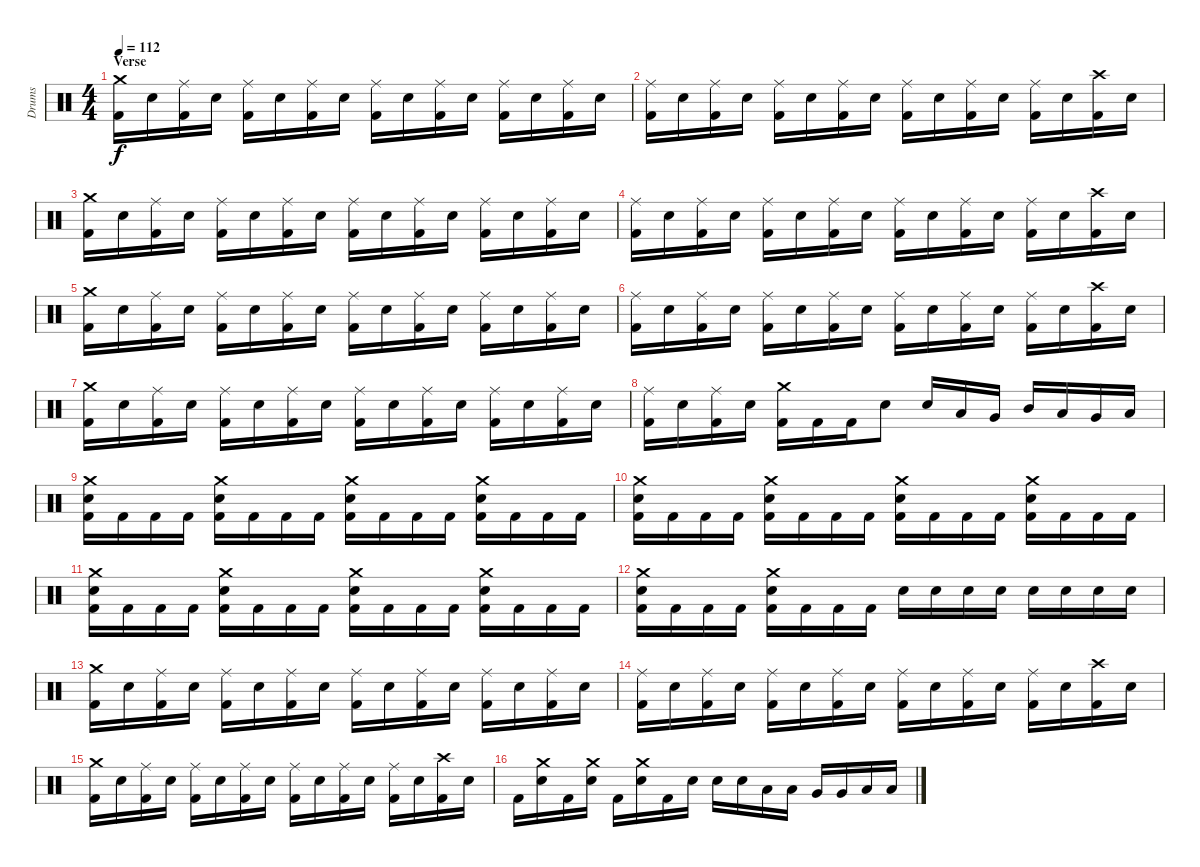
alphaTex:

\track ("Drums" "Drums") {instrument percussion}
\staff {score}
\articulation defaults
\ts (4 4)
\section ("" "Verse")
\tempo 112
\clef neutral
\ks c
("Crash medium (hit)" "Kick (hit) 2").16{dy f} "Electric Snare (hit)".16 ("Ride (middle)" "Kick (hit) 2").16 "Electric Snare (hit)".16 ("Ride (middle)" "Kick (hit) 2").16 "Electric Snare (hit)".16 ("Ride (middle)" "Kick (hit) 2").16 "Electric Snare (hit)".16 ("Ride (middle)" "Kick (hit) 2").16 "Electric Snare (hit)".16 ("Ride (middle)" "Kick (hit) 2").16 "Electric Snare (hit)".16 ("Ride (middle)" "Kick (hit) 2").16 "Electric Snare (hit)".16 ("Ride (middle)" "Kick (hit) 2").16 "Electric Snare (hit)".16 |
("Ride (middle)" "Kick (hit) 2").16 "Electric Snare (hit)".16 ("Ride (middle)" "Kick (hit) 2").16 "Electric Snare (hit)".16 ("Ride (middle)" "Kick (hit) 2").16 "Electric Snare (hit)".16 ("Ride (middle)" "Kick (hit) 2").16 "Electric Snare (hit)".16 ("Ride (middle)" "Kick (hit) 2").16 "Electric Snare (hit)".16 ("Ride (middle)" "Kick (hit) 2").16 "Electric Snare (hit)".16 ("Ride (middle)" "Kick (hit) 2").16 "Electric Snare (hit)".16 ("Crash high (hit)" "Kick (hit) 2").16 "Electric Snare (hit)".16 |
("Crash medium (hit)" "Kick (hit) 2").16 "Electric Snare (hit)".16 ("Ride (middle)" "Kick (hit) 2").16 "Electric Snare (hit)".16 ("Ride (middle)" "Kick (hit) 2").16 "Electric Snare (hit)".16 ("Ride (middle)" "Kick (hit) 2").16 "Electric Snare (hit)".16 ("Ride (middle)" "Kick (hit) 2").16 "Electric Snare (hit)".16 ("Ride (middle)" "Kick (hit) 2").16 "Electric Snare (hit)".16 ("Ride (middle)" "Kick (hit) 2").16 "Electric Snare (hit)".16 ("Ride (middle)" "Kick (hit) 2").16 "Electric Snare (hit)".16 |
("Ride (middle)" "Kick (hit) 2").16 "Electric Snare (hit)".16 ("Ride (middle)" "Kick (hit) 2").16 "Electric Snare (hit)".16 ("Ride (middle)" "Kick (hit) 2").16 "Electric Snare (hit)".16 ("Ride (middle)" "Kick (hit) 2").16 "Electric Snare (hit)".16 ("Ride (middle)" "Kick (hit) 2").16 "Electric Snare (hit)".16 ("Ride (middle)" "Kick (hit) 2").16 "Electric Snare (hit)".16 ("Ride (middle)" "Kick (hit) 2").16 "Electric Snare (hit)".16 ("Crash high (hit)" "Kick (hit) 2").16 "Electric Snare (hit)".16 |
("Crash medium (hit)" "Kick (hit) 2").16 "Electric Snare (hit)".16 ("Ride (middle)" "Kick (hit) 2").16 "Electric Snare (hit)".16 ("Ride (middle)" "Kick (hit) 2").16 "Electric Snare (hit)".16 ("Ride (middle)" "Kick (hit) 2").16 "Electric Snare (hit)".16 ("Ride (middle)" "Kick (hit) 2").16 "Electric Snare (hit)".16 ("Ride (middle)" "Kick (hit) 2").16 "Electric Snare (hit)".16 ("Ride (middle)" "Kick (hit) 2").16 "Electric Snare (hit)".16 ("Ride (middle)" "Kick (hit) 2").16 "Electric Snare (hit)".16 |
("Ride (middle)" "Kick (hit) 2").16 "Electric Snare (hit)".16 ("Ride (middle)" "Kick (hit) 2").16 "Electric Snare (hit)".16 ("Ride (middle)" "Kick (hit) 2").16 "Electric Snare (hit)".16 ("Ride (middle)" "Kick (hit) 2").16 "Electric Snare (hit)".16 ("Ride (middle)" "Kick (hit) 2").16 "Electric Snare (hit)".16 ("Ride (middle)" "Kick (hit) 2").16 "Electric Snare (hit)".16 ("Ride (middle)" "Kick (hit) 2").16 "Electric Snare (hit)".16 ("Crash high (hit)" "Kick (hit) 2").16 "Electric Snare (hit)".16 |
("Crash medium (hit)" "Kick (hit) 2").16 "Electric Snare (hit)".16 ("Ride (middle)" "Kick (hit) 2").16 "Electric Snare (hit)".16 ("Ride (middle)" "Kick (hit) 2").16 "Electric Snare (hit)".16 ("Ride (middle)" "Kick (hit) 2").16 "Electric Snare (hit)".16 ("Ride (middle)" "Kick (hit) 2").16 "Electric Snare (hit)".16 ("Ride (middle)" "Kick (hit) 2").16 "Electric Snare (hit)".16 ("Ride (middle)" "Kick (hit) 2").16 "Electric Snare (hit)".16 ("Ride (middle)" "Kick (hit) 2").16 "Electric Snare (hit)".16 |
("Ride (middle)" "Kick (hit) 2").16 "Electric Snare (hit)".16 ("Ride (middle)" "Kick (hit) 2").16 "Electric Snare (hit)".16 ("Crash medium (hit)" "Kick (hit) 2").16 "Kick (hit) 2".16 "Kick (hit) 2".16 "Electric Snare (hit)".8 "Electric Snare (hit)".16 "Low Tom (hit)".16 "Very Low Tom (hit)".16 "Mid Tom (hit)".16 "Low Tom (hit)".16 "Very Low Tom (hit)".16 "Low Floor Tom (hit)".16 |
\section ("" "")
("Crash medium (hit)" "Electric Snare (hit)" "Kick (hit) 2").16 "Kick (hit) 2".16 "Kick (hit) 2".16 "Kick (hit) 2".16 ("Crash medium (hit)" "Electric Snare (hit)" "Kick (hit) 2").16 "Kick (hit) 2".16 "Kick (hit) 2".16 "Kick (hit) 2".16 ("Crash medium (hit)" "Electric Snare (hit)" "Kick (hit) 2").16 "Kick (hit) 2".16 "Kick (hit) 2".16 "Kick (hit) 2".16 ("Crash medium (hit)" "Electric Snare (hit)" "Kick (hit) 2").16 "Kick (hit) 2".16 "Kick (hit) 2".16 "Kick (hit) 2".16 |
("Crash medium (hit)" "Electric Snare (hit)" "Kick (hit) 2").16 "Kick (hit) 2".16 "Kick (hit) 2".16 "Kick (hit) 2".16 ("Crash medium (hit)" "Electric Snare (hit)" "Kick (hit) 2").16 "Kick (hit) 2".16 "Kick (hit) 2".16 "Kick (hit) 2".16 ("Crash medium (hit)" "Electric Snare (hit)" "Kick (hit) 2").16 "Kick (hit) 2".16 "Kick (hit) 2".16 "Kick (hit) 2".16 ("Crash medium (hit)" "Electric Snare (hit)" "Kick (hit) 2").16 "Kick (hit) 2".16 "Kick (hit) 2".16 "Kick (hit) 2".16 |
("Crash medium (hit)" "Electric Snare (hit)" "Kick (hit) 2").16 "Kick (hit) 2".16 "Kick (hit) 2".16 "Kick (hit) 2".16 ("Crash medium (hit)" "Electric Snare (hit)" "Kick (hit) 2").16 "Kick (hit) 2".16 "Kick (hit) 2".16 "Kick (hit) 2".16 ("Crash medium (hit)" "Electric Snare (hit)" "Kick (hit) 2").16 "Kick (hit) 2".16 "Kick (hit) 2".16 "Kick (hit) 2".16 ("Crash medium (hit)" "Electric Snare (hit)" "Kick (hit) 2").16 "Kick (hit) 2".16 "Kick (hit) 2".16 "Kick (hit) 2".16 |
("Crash medium (hit)" "Electric Snare (hit)" "Kick (hit) 2").16 "Kick (hit) 2".16 "Kick (hit) 2".16 "Kick (hit) 2".16 ("Crash medium (hit)" "Electric Snare (hit)" "Kick (hit) 2").16 "Kick (hit) 2".16 "Kick (hit) 2".16 "Kick (hit) 2".16 "Electric Snare (hit)".16 "Electric Snare (hit)".16 "Electric Snare (hit)".16 "Electric Snare (hit)".16 "Electric Snare (hit)".16 "Electric Snare (hit)".16 "Electric Snare (hit)".16 "Electric Snare (hit)".16 |
\section ("" "")
("Crash medium (hit)" "Kick (hit) 2").16 "Electric Snare (hit)".16 ("Ride (middle)" "Kick (hit) 2").16 "Electric Snare (hit)".16 ("Ride (middle)" "Kick (hit) 2").16 "Electric Snare (hit)".16 ("Ride (middle)" "Kick (hit) 2").16 "Electric Snare (hit)".16 ("Ride (middle)" "Kick (hit) 2").16 "Electric Snare (hit)".16 ("Ride (middle)" "Kick (hit) 2").16 "Electric Snare (hit)".16 ("Ride (middle)" "Kick (hit) 2").16 "Electric Snare (hit)".16 ("Ride (middle)" "Kick (hit) 2").16 "Electric Snare (hit)".16 |
("Ride (middle)" "Kick (hit) 2").16 "Electric Snare (hit)".16 ("Ride (middle)" "Kick (hit) 2").16 "Electric Snare (hit)".16 ("Ride (middle)" "Kick (hit) 2").16 "Electric Snare (hit)".16 ("Ride (middle)" "Kick (hit) 2").16 "Electric Snare (hit)".16 ("Ride (middle)" "Kick (hit) 2").16 "Electric Snare (hit)".16 ("Ride (middle)" "Kick (hit) 2").16 "Electric Snare (hit)".16 ("Ride (middle)" "Kick (hit) 2").16 "Electric Snare (hit)".16 ("Crash high (hit)" "Kick (hit) 2").16 "Electric Snare (hit)".16 |
("Crash medium (hit)" "Kick (hit) 2").16 "Electric Snare (hit)".16 ("Ride (middle)" "Kick (hit) 2").16 "Electric Snare (hit)".16 ("Ride (middle)" "Kick (hit) 2").16 "Electric Snare (hit)".16 ("Ride (middle)" "Kick (hit) 2").16 "Electric Snare (hit)".16 ("Ride (middle)" "Kick (hit) 2").16 "Electric Snare (hit)".16 ("Ride (middle)" "Kick (hit) 2").16 "Electric Snare (hit)".16 ("Ride (middle)" "Kick (hit) 2").16 "Electric Snare (hit)".16 ("Crash high (hit)" "Kick (hit) 2").16 "Electric Snare (hit)".16 |
"Kick (hit) 2".16 ("Crash medium (hit)" "Electric Snare (hit)").16 "Kick (hit) 2".16 ("Crash medium (hit)" "Electric Snare (hit)").16 "Kick (hit) 2".16 ("Crash medium (hit)" "Electric Snare (hit)").16 "Kick (hit) 2".16 "Electric Snare (hit)".16 "Electric Snare (hit)".16 "Electric Snare (hit)".16 "Low Tom (hit)".16 "Low Tom (hit)".16 "Very Low Tom (hit)".16 "Very Low Tom (hit)".16 "Low Floor Tom (hit)".16 "Low Floor Tom (hit)".16
